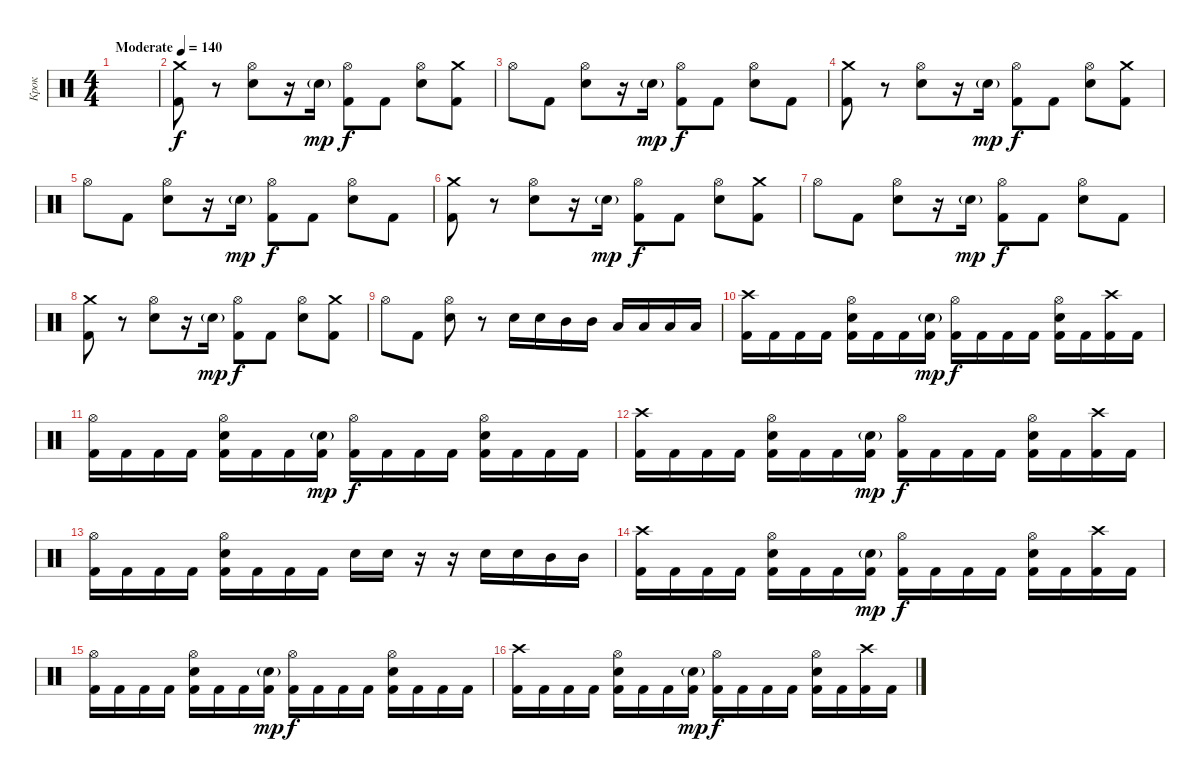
\track ("Крок" "Крок") {instrument percussion}
\staff {score}
\articulation defaults
\ts (4 4)
\tempo (140 "Moderate")
\clef neutral
\ks c
|
("Kick (hit) 2" "Crash medium (hit)").8 r.8 ("Electric Snare (hit)" "Hi-Hat (open)").8 r.16 "Electric Snare (hit)"{g}.16{dy mp} ("Kick (hit) 2" "Hi-Hat (open)").8{dy f} "Kick (hit) 2".8 ("Electric Snare (hit)" "Hi-Hat (open)").8 ("Kick (hit) 2" "Crash medium (hit)").8 |
"Hi-Hat (open)".8 "Kick (hit) 2".8 ("Electric Snare (hit)" "Hi-Hat (open)").8 r.16 "Electric Snare (hit)"{g}.16{dy mp} ("Kick (hit) 2" "Hi-Hat (open)").8{dy f} "Kick (hit) 2".8 ("Electric Snare (hit)" "Hi-Hat (open)").8 "Kick (hit) 2".8 |
("Kick (hit) 2" "Crash medium (hit)").8 r.8 ("Electric Snare (hit)" "Hi-Hat (open)").8 r.16 "Electric Snare (hit)"{g}.16{dy mp} ("Kick (hit) 2" "Hi-Hat (open)").8{dy f} "Kick (hit) 2".8 ("Electric Snare (hit)" "Hi-Hat (open)").8 ("Kick (hit) 2" "Crash medium (hit)").8 |
"Hi-Hat (open)".8 "Kick (hit) 2".8 ("Electric Snare (hit)" "Hi-Hat (open)").8 r.16 "Electric Snare (hit)"{g}.16{dy mp} ("Kick (hit) 2" "Hi-Hat (open)").8{dy f} "Kick (hit) 2".8 ("Electric Snare (hit)" "Hi-Hat (open)").8 "Kick (hit) 2".8 |
("Kick (hit) 2" "Crash medium (hit)").8 r.8 ("Electric Snare (hit)" "Hi-Hat (open)").8 r.16 "Electric Snare (hit)"{g}.16{dy mp} ("Kick (hit) 2" "Hi-Hat (open)").8{dy f} "Kick (hit) 2".8 ("Electric Snare (hit)" "Hi-Hat (open)").8 ("Kick (hit) 2" "Crash medium (hit)").8 |
"Hi-Hat (open)".8 "Kick (hit) 2".8 ("Electric Snare (hit)" "Hi-Hat (open)").8 r.16 "Electric Snare (hit)"{g}.16{dy mp} ("Kick (hit) 2" "Hi-Hat (open)").8{dy f} "Kick (hit) 2".8 ("Electric Snare (hit)" "Hi-Hat (open)").8 "Kick (hit) 2".8 |
("Kick (hit) 2" "Crash medium (hit)").8 r.8 ("Electric Snare (hit)" "Hi-Hat (open)").8 r.16 "Electric Snare (hit)"{g}.16{dy mp} ("Kick (hit) 2" "Hi-Hat (open)").8{dy f} "Kick (hit) 2".8 ("Electric Snare (hit)" "Hi-Hat (open)").8 ("Kick (hit) 2" "Crash medium (hit)").8 |
"Hi-Hat (open)".8 "Kick (hit) 2".8 ("Electric Snare (hit)" "Hi-Hat (open)").8 r.8 "Electric Snare (hit)".16 "Electric Snare (hit)".16 "Mid Tom (hit)".16 "Mid Tom (hit)".16 "Low Tom (hit)".16 "Low Tom (hit)".16 "Low Tom (hit)".16 "Low Tom (hit)".16 |
("Kick (hit) 2" "Crash high (hit)").16 "Kick (hit) 2".16 "Kick (hit) 2".16 "Kick (hit) 2".16 ("Kick (hit) 2" "Electric Snare (hit)" "Hi-Hat (open)").16 "Kick (hit) 2".16 "Kick (hit) 2".16 ("Kick (hit) 2" "Electric Snare (hit)"{g}).16{dy mp} ("Kick (hit) 2" "Hi-Hat (open)").16{dy f} "Kick (hit) 2".16 "Kick (hit) 2".16 "Kick (hit) 2".16 ("Kick (hit) 2" "Electric Snare (hit)" "Hi-Hat (open)").16 "Kick (hit) 2".16 ("Kick (hit) 2" "Crash high (hit)").16 "Kick (hit) 2".16 |
("Kick (hit) 2" "Hi-Hat (open)").16 "Kick (hit) 2".16 "Kick (hit) 2".16 "Kick (hit) 2".16 ("Kick (hit) 2" "Electric Snare (hit)" "Hi-Hat (open)").16 "Kick (hit) 2".16 "Kick (hit) 2".16 ("Kick (hit) 2" "Electric Snare (hit)"{g}).16{dy mp} ("Kick (hit) 2" "Hi-Hat (open)").16{dy f} "Kick (hit) 2".16 "Kick (hit) 2".16 "Kick (hit) 2".16 ("Kick (hit) 2" "Electric Snare (hit)" "Hi-Hat (open)").16 "Kick (hit) 2".16 "Kick (hit) 2".16 "Kick (hit) 2".16 |
("Kick (hit) 2" "Crash high (hit)").16 "Kick (hit) 2".16 "Kick (hit) 2".16 "Kick (hit) 2".16 ("Kick (hit) 2" "Electric Snare (hit)" "Hi-Hat (open)").16 "Kick (hit) 2".16 "Kick (hit) 2".16 ("Kick (hit) 2" "Electric Snare (hit)"{g}).16{dy mp} ("Kick (hit) 2" "Hi-Hat (open)").16{dy f} "Kick (hit) 2".16 "Kick (hit) 2".16 "Kick (hit) 2".16 ("Kick (hit) 2" "Electric Snare (hit)" "Hi-Hat (open)").16 "Kick (hit) 2".16 ("Kick (hit) 2" "Crash high (hit)").16 "Kick (hit) 2".16 |
("Kick (hit) 2" "Hi-Hat (open)").16 "Kick (hit) 2".16 "Kick (hit) 2".16 "Kick (hit) 2".16 ("Kick (hit) 2" "Electric Snare (hit)" "Hi-Hat (open)").16 "Kick (hit) 2".16 "Kick (hit) 2".16 "Kick (hit) 2".16 "Electric Snare (hit)".16 "Electric Snare (hit)".16 r.16 r.16 "Electric Snare (hit)".16 "Electric Snare (hit)".16 "Mid Tom (hit)".16 "Mid Tom (hit)".16 |
("Kick (hit) 2" "Crash high (hit)").16 "Kick (hit) 2".16 "Kick (hit) 2".16 "Kick (hit) 2".16 ("Kick (hit) 2" "Electric Snare (hit)" "Hi-Hat (open)").16 "Kick (hit) 2".16 "Kick (hit) 2".16 ("Kick (hit) 2" "Electric Snare (hit)"{g}).16{dy mp} ("Kick (hit) 2" "Hi-Hat (open)").16{dy f} "Kick (hit) 2".16 "Kick (hit) 2".16 "Kick (hit) 2".16 ("Kick (hit) 2" "Electric Snare (hit)" "Hi-Hat (open)").16 "Kick (hit) 2".16 ("Kick (hit) 2" "Crash high (hit)").16 "Kick (hit) 2".16 |
("Kick (hit) 2" "Hi-Hat (open)").16 "Kick (hit) 2".16 "Kick (hit) 2".16 "Kick (hit) 2".16 ("Kick (hit) 2" "Electric Snare (hit)" "Hi-Hat (open)").16 "Kick (hit) 2".16 "Kick (hit) 2".16 ("Kick (hit) 2" "Electric Snare (hit)"{g}).16{dy mp} ("Kick (hit) 2" "Hi-Hat (open)").16{dy f} "Kick (hit) 2".16 "Kick (hit) 2".16 "Kick (hit) 2".16 ("Kick (hit) 2" "Electric Snare (hit)" "Hi-Hat (open)").16 "Kick (hit) 2".16 "Kick (hit) 2".16 "Kick (hit) 2".16 |
("Kick (hit) 2" "Crash high (hit)").16 "Kick (hit) 2".16 "Kick (hit) 2".16 "Kick (hit) 2".16 ("Kick (hit) 2" "Electric Snare (hit)" "Hi-Hat (open)").16 "Kick (hit) 2".16 "Kick (hit) 2".16 ("Kick (hit) 2" "Electric Snare (hit)"{g}).16{dy mp} ("Kick (hit) 2" "Hi-Hat (open)").16{dy f} "Kick (hit) 2".16 "Kick (hit) 2".16 "Kick (hit) 2".16 ("Kick (hit) 2" "Electric Snare (hit)" "Hi-Hat (open)").16 "Kick (hit) 2".16 ("Kick (hit) 2" "Crash high (hit)").16 "Kick (hit) 2".16
